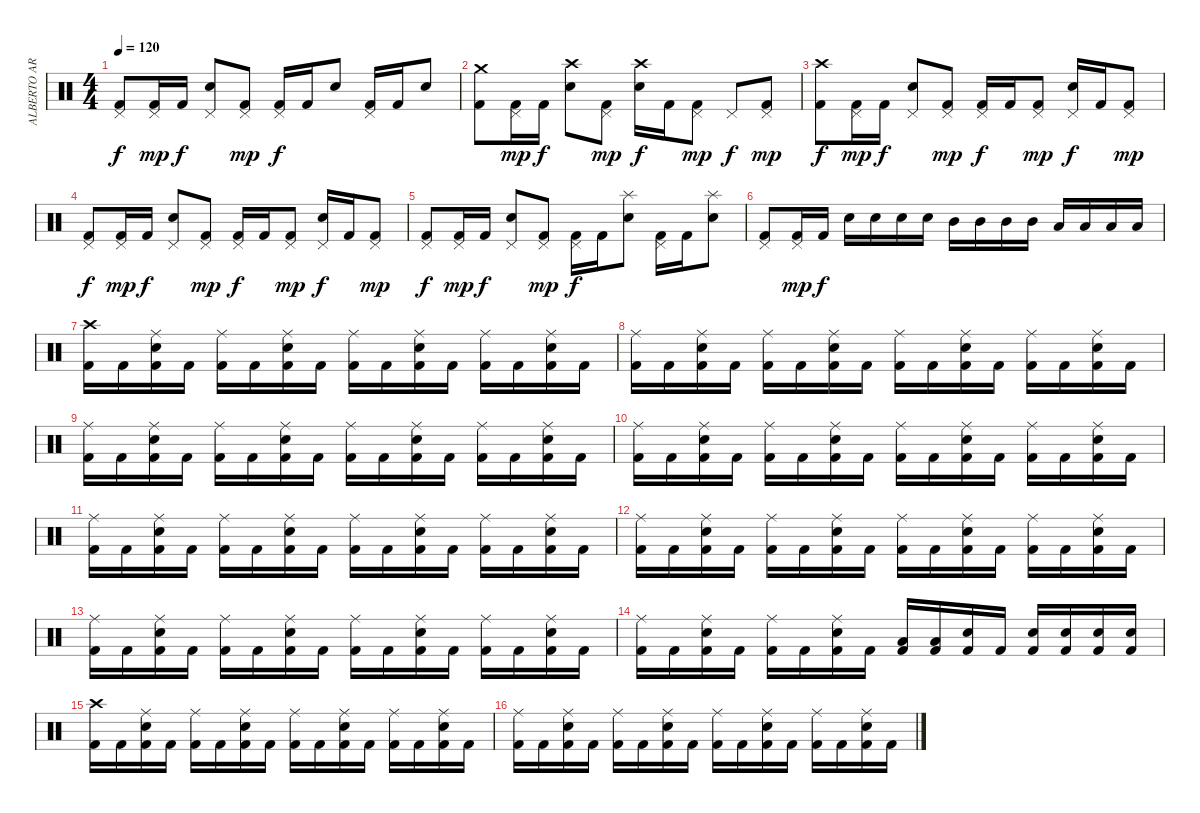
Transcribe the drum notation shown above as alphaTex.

\track ("ALBERTO ARDINES" "ALBERTO AR") {instrument percussion}
\staff {score}
\articulation defaults
\ts (4 4)
\tempo 120
\clef neutral
\ks c
("Pedal Hi-Hat (hit)" "Kick (hit) 2").8{dy f} ("Pedal Hi-Hat (hit)" "Kick (hit) 2").16{dy mp} "Kick (hit) 2".16{dy f} ("Pedal Hi-Hat (hit)" "Electric Snare (hit)").8 ("Pedal Hi-Hat (hit)" "Kick (hit) 2").8{dy mp} ("Pedal Hi-Hat (hit)" "Kick (hit) 2").16{dy f} "Kick (hit) 2".16 "Electric Snare (hit)".8 ("Pedal Hi-Hat (hit)" "Kick (hit) 2").16 "Kick (hit) 2".16 "Electric Snare (hit)".8 |
("Crash medium (hit)" "Kick (hit) 2").8 ("Pedal Hi-Hat (hit)" "Kick (hit) 2").16{dy mp} "Kick (hit) 2".16{dy f} ("Crash high (hit)" "Electric Snare (hit)").8 ("Pedal Hi-Hat (hit)" "Kick (hit) 2").8{dy mp} ("Crash high (hit)" "Electric Snare (hit)").16{dy f} "Kick (hit) 2".16 ("Pedal Hi-Hat (hit)" "Kick (hit) 2").8{dy mp} "Pedal Hi-Hat (hit)".8{dy f} ("Pedal Hi-Hat (hit)" "Kick (hit) 2").8{dy mp} |
("Crash high (hit)" "Kick (hit) 2").8{dy f} ("Pedal Hi-Hat (hit)" "Kick (hit) 2").16{dy mp} "Kick (hit) 2".16{dy f} ("Pedal Hi-Hat (hit)" "Electric Snare (hit)").8 ("Pedal Hi-Hat (hit)" "Kick (hit) 2").8{dy mp} ("Pedal Hi-Hat (hit)" "Kick (hit) 2").16{dy f} "Kick (hit) 2".16 ("Pedal Hi-Hat (hit)" "Kick (hit) 2").8{dy mp} ("Pedal Hi-Hat (hit)" "Electric Snare (hit)").16{dy f} "Kick (hit) 2".16 ("Pedal Hi-Hat (hit)" "Kick (hit) 2").8{dy mp} |
("Pedal Hi-Hat (hit)" "Kick (hit) 2").8{dy f} ("Pedal Hi-Hat (hit)" "Kick (hit) 2").16{dy mp} "Kick (hit) 2".16{dy f} ("Pedal Hi-Hat (hit)" "Electric Snare (hit)").8 ("Pedal Hi-Hat (hit)" "Kick (hit) 2").8{dy mp} ("Pedal Hi-Hat (hit)" "Kick (hit) 2").16{dy f} "Kick (hit) 2".16 ("Pedal Hi-Hat (hit)" "Kick (hit) 2").8{dy mp} ("Pedal Hi-Hat (hit)" "Electric Snare (hit)").16{dy f} "Kick (hit) 2".16 ("Pedal Hi-Hat (hit)" "Kick (hit) 2").8{dy mp} |
("Pedal Hi-Hat (hit)" "Kick (hit) 2").8{dy f} ("Pedal Hi-Hat (hit)" "Kick (hit) 2").16{dy mp} "Kick (hit) 2".16{dy f} ("Pedal Hi-Hat (hit)" "Electric Snare (hit)").8 ("Pedal Hi-Hat (hit)" "Kick (hit) 2").8{dy mp} ("Pedal Hi-Hat (hit)" "Kick (hit) 2").16{dy f} "Kick (hit) 2".16 ("Splash (hit)" "Electric Snare (hit)").8 ("Pedal Hi-Hat (hit)" "Kick (hit) 2").16 "Kick (hit) 2".16 ("Splash (hit)" "Electric Snare (hit)").8 |
("Pedal Hi-Hat (hit)" "Kick (hit) 2").8 ("Pedal Hi-Hat (hit)" "Kick (hit) 2").16{dy mp} "Kick (hit) 2".16{dy f} "Electric Snare (hit)".16 "Electric Snare (hit)".16 "Electric Snare (hit)".16 "Electric Snare (hit)".16 "Mid Tom (hit)".16 "Mid Tom (hit)".16 "Mid Tom (hit)".16 "Mid Tom (hit)".16 "Low Tom (hit)".16 "Low Tom (hit)".16 "Low Tom (hit)".16 "Low Tom (hit)".16 |
("Crash high (hit)" "Kick (hit) 2").16 "Kick (hit) 2".16 ("Ride (middle)" "Electric Snare (hit)" "Kick (hit) 2").16 "Kick (hit) 2".16 ("Ride (middle)" "Kick (hit) 2").16 "Kick (hit) 2".16 ("Ride (middle)" "Electric Snare (hit)" "Kick (hit) 2").16 "Kick (hit) 2".16 ("Ride (middle)" "Kick (hit) 2").16 "Kick (hit) 2".16 ("Ride (middle)" "Electric Snare (hit)" "Kick (hit) 2").16 "Kick (hit) 2".16 ("Ride (middle)" "Kick (hit) 2").16 "Kick (hit) 2".16 ("Ride (middle)" "Electric Snare (hit)" "Kick (hit) 2").16 "Kick (hit) 2".16 |
("Ride (middle)" "Kick (hit) 2").16 "Kick (hit) 2".16 ("Ride (middle)" "Electric Snare (hit)" "Kick (hit) 2").16 "Kick (hit) 2".16 ("Ride (middle)" "Kick (hit) 2").16 "Kick (hit) 2".16 ("Ride (middle)" "Electric Snare (hit)" "Kick (hit) 2").16 "Kick (hit) 2".16 ("Ride (middle)" "Kick (hit) 2").16 "Kick (hit) 2".16 ("Ride (middle)" "Electric Snare (hit)" "Kick (hit) 2").16 "Kick (hit) 2".16 ("Ride (middle)" "Kick (hit) 2").16 "Kick (hit) 2".16 ("Ride (middle)" "Electric Snare (hit)" "Kick (hit) 2").16 "Kick (hit) 2".16 |
("Ride (middle)" "Kick (hit) 2").16 "Kick (hit) 2".16 ("Ride (middle)" "Electric Snare (hit)" "Kick (hit) 2").16 "Kick (hit) 2".16 ("Ride (middle)" "Kick (hit) 2").16 "Kick (hit) 2".16 ("Ride (middle)" "Electric Snare (hit)" "Kick (hit) 2").16 "Kick (hit) 2".16 ("Ride (middle)" "Kick (hit) 2").16 "Kick (hit) 2".16 ("Ride (middle)" "Electric Snare (hit)" "Kick (hit) 2").16 "Kick (hit) 2".16 ("Ride (middle)" "Kick (hit) 2").16 "Kick (hit) 2".16 ("Ride (middle)" "Electric Snare (hit)" "Kick (hit) 2").16 "Kick (hit) 2".16 |
("Ride (middle)" "Kick (hit) 2").16 "Kick (hit) 2".16 ("Ride (middle)" "Electric Snare (hit)" "Kick (hit) 2").16 "Kick (hit) 2".16 ("Ride (middle)" "Kick (hit) 2").16 "Kick (hit) 2".16 ("Ride (middle)" "Electric Snare (hit)" "Kick (hit) 2").16 "Kick (hit) 2".16 ("Ride (middle)" "Kick (hit) 2").16 "Kick (hit) 2".16 ("Ride (middle)" "Electric Snare (hit)" "Kick (hit) 2").16 "Kick (hit) 2".16 ("Ride (middle)" "Kick (hit) 2").16 "Kick (hit) 2".16 ("Ride (middle)" "Electric Snare (hit)" "Kick (hit) 2").16 "Kick (hit) 2".16 |
("Ride (middle)" "Kick (hit) 2").16 "Kick (hit) 2".16 ("Ride (middle)" "Electric Snare (hit)" "Kick (hit) 2").16 "Kick (hit) 2".16 ("Ride (middle)" "Kick (hit) 2").16 "Kick (hit) 2".16 ("Ride (middle)" "Electric Snare (hit)" "Kick (hit) 2").16 "Kick (hit) 2".16 ("Ride (middle)" "Kick (hit) 2").16 "Kick (hit) 2".16 ("Ride (middle)" "Electric Snare (hit)" "Kick (hit) 2").16 "Kick (hit) 2".16 ("Ride (middle)" "Kick (hit) 2").16 "Kick (hit) 2".16 ("Ride (middle)" "Electric Snare (hit)" "Kick (hit) 2").16 "Kick (hit) 2".16 |
("Ride (middle)" "Kick (hit) 2").16 "Kick (hit) 2".16 ("Ride (middle)" "Electric Snare (hit)" "Kick (hit) 2").16 "Kick (hit) 2".16 ("Ride (middle)" "Kick (hit) 2").16 "Kick (hit) 2".16 ("Ride (middle)" "Electric Snare (hit)" "Kick (hit) 2").16 "Kick (hit) 2".16 ("Ride (middle)" "Kick (hit) 2").16 "Kick (hit) 2".16 ("Ride (middle)" "Electric Snare (hit)" "Kick (hit) 2").16 "Kick (hit) 2".16 ("Ride (middle)" "Kick (hit) 2").16 "Kick (hit) 2".16 ("Ride (middle)" "Electric Snare (hit)" "Kick (hit) 2").16 "Kick (hit) 2".16 |
("Ride (middle)" "Kick (hit) 2").16 "Kick (hit) 2".16 ("Ride (middle)" "Electric Snare (hit)" "Kick (hit) 2").16 "Kick (hit) 2".16 ("Ride (middle)" "Kick (hit) 2").16 "Kick (hit) 2".16 ("Ride (middle)" "Electric Snare (hit)" "Kick (hit) 2").16 "Kick (hit) 2".16 ("Ride (middle)" "Kick (hit) 2").16 "Kick (hit) 2".16 ("Ride (middle)" "Electric Snare (hit)" "Kick (hit) 2").16 "Kick (hit) 2".16 ("Ride (middle)" "Kick (hit) 2").16 "Kick (hit) 2".16 ("Ride (middle)" "Electric Snare (hit)" "Kick (hit) 2").16 "Kick (hit) 2".16 |
("Ride (middle)" "Kick (hit) 2").16 "Kick (hit) 2".16 ("Ride (middle)" "Electric Snare (hit)" "Kick (hit) 2").16 "Kick (hit) 2".16 ("Ride (middle)" "Kick (hit) 2").16 "Kick (hit) 2".16 ("Ride (middle)" "Electric Snare (hit)" "Kick (hit) 2").16 "Kick (hit) 2".16 ("Low Tom (hit)" "Kick (hit) 2").16 ("Low Tom (hit)" "Kick (hit) 2").16 ("Electric Snare (hit)" "Kick (hit) 2").16 "Kick (hit) 2".16 ("Electric Snare (hit)" "Kick (hit) 2").16 ("Electric Snare (hit)" "Kick (hit) 2").16 ("Electric Snare (hit)" "Kick (hit) 2").16 ("Electric Snare (hit)" "Kick (hit) 2").16 |
("Crash high (hit)" "Kick (hit) 2").16 "Kick (hit) 2".16 ("Ride (middle)" "Electric Snare (hit)" "Kick (hit) 2").16 "Kick (hit) 2".16 ("Ride (middle)" "Kick (hit) 2").16 "Kick (hit) 2".16 ("Ride (middle)" "Electric Snare (hit)" "Kick (hit) 2").16 "Kick (hit) 2".16 ("Ride (middle)" "Kick (hit) 2").16 "Kick (hit) 2".16 ("Ride (middle)" "Electric Snare (hit)" "Kick (hit) 2").16 "Kick (hit) 2".16 ("Ride (middle)" "Kick (hit) 2").16 "Kick (hit) 2".16 ("Ride (middle)" "Electric Snare (hit)" "Kick (hit) 2").16 "Kick (hit) 2".16 |
("Ride (middle)" "Kick (hit) 2").16 "Kick (hit) 2".16 ("Ride (middle)" "Electric Snare (hit)" "Kick (hit) 2").16 "Kick (hit) 2".16 ("Ride (middle)" "Kick (hit) 2").16 "Kick (hit) 2".16 ("Ride (middle)" "Electric Snare (hit)" "Kick (hit) 2").16 "Kick (hit) 2".16 ("Ride (middle)" "Kick (hit) 2").16 "Kick (hit) 2".16 ("Ride (middle)" "Electric Snare (hit)" "Kick (hit) 2").16 "Kick (hit) 2".16 ("Ride (middle)" "Kick (hit) 2").16 "Kick (hit) 2".16 ("Ride (middle)" "Electric Snare (hit)" "Kick (hit) 2").16 "Kick (hit) 2".16
